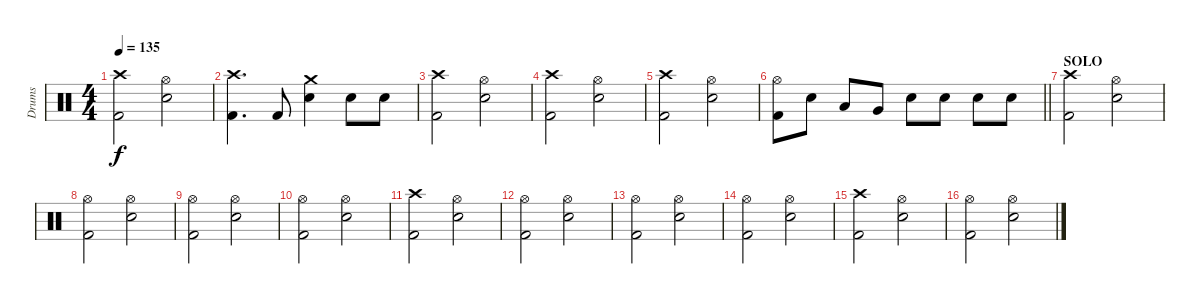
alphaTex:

\track ("Drums" "Drums") {instrument percussion}
\staff {score}
\articulation defaults
\ts (4 4)
\tempo 135
\clef neutral
\ks c
("Crash high (hit)" "Kick (hit) 2").2{dy f} ("Hi-Hat (open)" "Electric Snare (hit)").2 |
("Crash high (hit)" "Kick (hit) 2").4{d} "Kick (hit) 2".8 ("Crash medium (hit)" "Electric Snare (hit)").4 "Electric Snare (hit)".8 "Electric Snare (hit)".8 |
("Crash high (hit)" "Kick (hit) 2").2 ("Hi-Hat (open)" "Electric Snare (hit)").2 |
("Crash high (hit)" "Kick (hit) 2").2 ("Hi-Hat (open)" "Electric Snare (hit)").2 |
("Crash high (hit)" "Kick (hit) 2").2 ("Hi-Hat (open)" "Electric Snare (hit)").2 |
\barLineRight lightlight
("Hi-Hat (open)" "Kick (hit) 2").8 "Electric Snare (hit)".8 "Low Tom (hit)".8 "Very Low Tom (hit)".8 "Electric Snare (hit)".8 "Electric Snare (hit)".8 "Electric Snare (hit)".8 "Electric Snare (hit)".8 |
\section ("" "SOLO")
("Crash high (hit)" "Kick (hit) 2").2 ("Hi-Hat (open)" "Electric Snare (hit)").2 |
("Hi-Hat (open)" "Kick (hit) 2").2 ("Hi-Hat (open)" "Electric Snare (hit)").2 |
("Hi-Hat (open)" "Kick (hit) 2").2 ("Hi-Hat (open)" "Electric Snare (hit)").2 |
("Hi-Hat (open)" "Kick (hit) 2").2 ("Hi-Hat (open)" "Electric Snare (hit)").2 |
("Crash high (hit)" "Kick (hit) 2").2 ("Hi-Hat (open)" "Electric Snare (hit)").2 |
("Hi-Hat (open)" "Kick (hit) 2").2 ("Hi-Hat (open)" "Electric Snare (hit)").2 |
("Hi-Hat (open)" "Kick (hit) 2").2 ("Hi-Hat (open)" "Electric Snare (hit)").2 |
("Hi-Hat (open)" "Kick (hit) 2").2 ("Hi-Hat (open)" "Electric Snare (hit)").2 |
("Crash high (hit)" "Kick (hit) 2").2 ("Hi-Hat (open)" "Electric Snare (hit)").2 |
("Hi-Hat (open)" "Kick (hit) 2").2 ("Hi-Hat (open)" "Electric Snare (hit)").2
